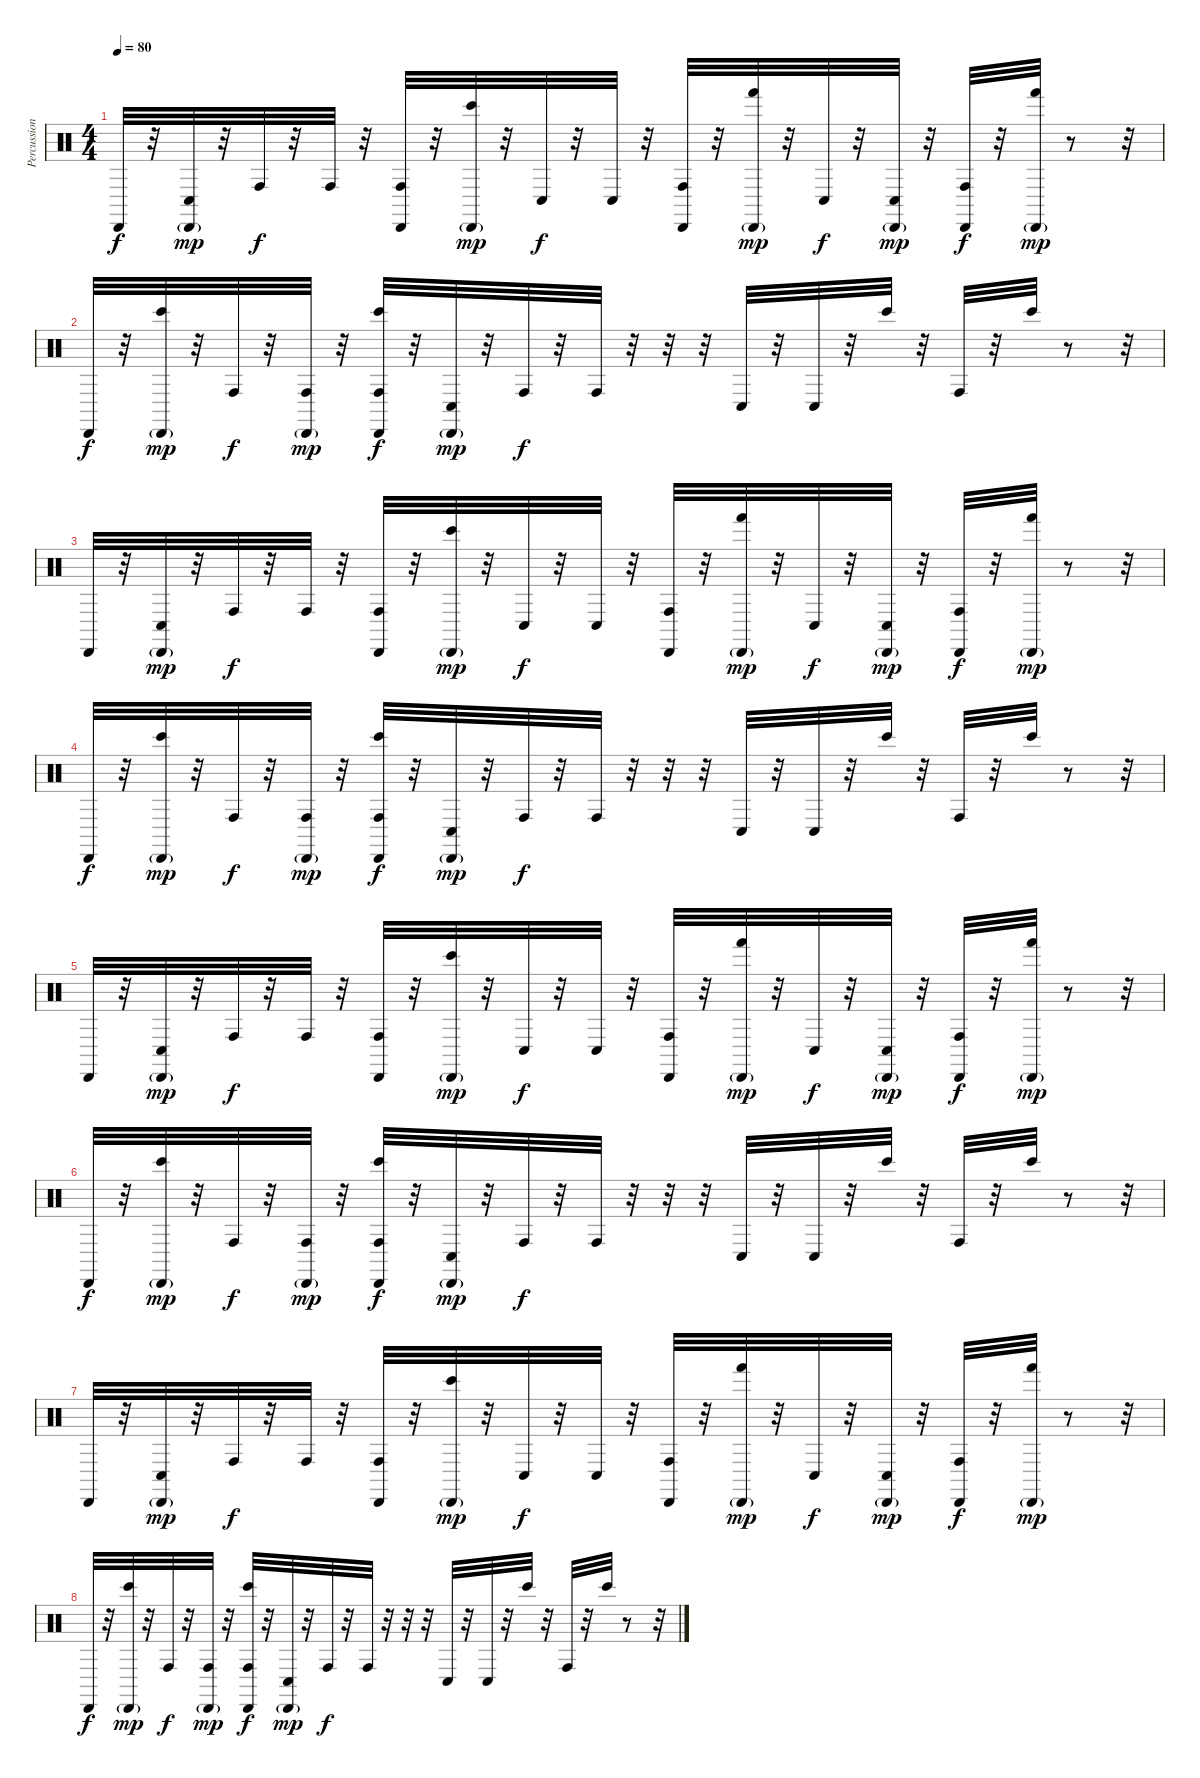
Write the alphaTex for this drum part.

\track ("Percussion" "Percussion") {instrument percussion}
\staff {score}
\articulation defaults
\ts (4 4)
\tempo 80
\clef neutral
\ks c "Cabasa (hit)".32{dy f}
r.32 ("Cabasa (hit)"{g} "Conga low (hit)").32{dy mp} r.32 "Conga high (hit)".32{dy f} r.32 "Conga high (hit)".32 r.32 ("Cabasa (hit)" "Conga high (hit)").32 r.32 ("Cabasa (hit)"{g} "Bongo High (hit)").32{dy mp} r.32 "Conga low (hit)".32{dy f} r.32 "Conga low (hit)".32 r.32 ("Cabasa (hit)" "Conga high (hit)").32 r.32 ("Cabasa (hit)"{g} "Hand (hit)").32{dy mp} r.32 "Conga low (hit)".32{dy f} r.32 ("Cabasa (hit)"{g} "Conga low (hit)").32{dy mp} r.32 ("Cabasa (hit)" "Conga high (hit)").32{dy f} r.32 ("Cabasa (hit)"{g} "Hand (hit)").32{dy mp} r.8 r.32 |
"Cabasa (hit)".32{dy f} r.32 ("Cabasa (hit)"{g} "Bongo High (hit)").32{dy mp} r.32 "Conga high (hit)".32{dy f} r.32 ("Cabasa (hit)"{g} "Conga high (hit)").32{dy mp} r.32 ("Cabasa (hit)" "Conga high (hit)" "Bongo High (hit)").32{dy f} r.32 ("Cabasa (hit)"{g} "Conga low (hit)").32{dy mp} r.32 "Conga high (hit)".32{dy f} r.32 "Conga high (hit)".32 r.32 r.32 r.32 "Conga low (hit)".32 r.32 "Conga low (hit)".32 r.32 "Bongo High (hit)".32 r.32 "Conga high (hit)".32 r.32 "Bongo High (hit)".32 r.8 r.32 |
"Cabasa (hit)".32 r.32 ("Cabasa (hit)"{g} "Conga low (hit)").32{dy mp} r.32 "Conga high (hit)".32{dy f} r.32 "Conga high (hit)".32 r.32 ("Cabasa (hit)" "Conga high (hit)").32 r.32 ("Cabasa (hit)"{g} "Bongo High (hit)").32{dy mp} r.32 "Conga low (hit)".32{dy f} r.32 "Conga low (hit)".32 r.32 ("Cabasa (hit)" "Conga high (hit)").32 r.32 ("Cabasa (hit)"{g} "Hand (hit)").32{dy mp} r.32 "Conga low (hit)".32{dy f} r.32 ("Cabasa (hit)"{g} "Conga low (hit)").32{dy mp} r.32 ("Cabasa (hit)" "Conga high (hit)").32{dy f} r.32 ("Cabasa (hit)"{g} "Hand (hit)").32{dy mp} r.8 r.32 |
"Cabasa (hit)".32{dy f} r.32 ("Cabasa (hit)"{g} "Bongo High (hit)").32{dy mp} r.32 "Conga high (hit)".32{dy f} r.32 ("Cabasa (hit)"{g} "Conga high (hit)").32{dy mp} r.32 ("Cabasa (hit)" "Conga high (hit)" "Bongo High (hit)").32{dy f} r.32 ("Cabasa (hit)"{g} "Conga low (hit)").32{dy mp} r.32 "Conga high (hit)".32{dy f} r.32 "Conga high (hit)".32 r.32 r.32 r.32 "Conga low (hit)".32 r.32 "Conga low (hit)".32 r.32 "Bongo High (hit)".32 r.32 "Conga high (hit)".32 r.32 "Bongo High (hit)".32 r.8 r.32 |
"Cabasa (hit)".32 r.32 ("Cabasa (hit)"{g} "Conga low (hit)").32{dy mp} r.32 "Conga high (hit)".32{dy f} r.32 "Conga high (hit)".32 r.32 ("Cabasa (hit)" "Conga high (hit)").32 r.32 ("Cabasa (hit)"{g} "Bongo High (hit)").32{dy mp} r.32 "Conga low (hit)".32{dy f} r.32 "Conga low (hit)".32 r.32 ("Cabasa (hit)" "Conga high (hit)").32 r.32 ("Cabasa (hit)"{g} "Hand (hit)").32{dy mp} r.32 "Conga low (hit)".32{dy f} r.32 ("Cabasa (hit)"{g} "Conga low (hit)").32{dy mp} r.32 ("Cabasa (hit)" "Conga high (hit)").32{dy f} r.32 ("Cabasa (hit)"{g} "Hand (hit)").32{dy mp} r.8 r.32 |
"Cabasa (hit)".32{dy f} r.32 ("Cabasa (hit)"{g} "Bongo High (hit)").32{dy mp} r.32 "Conga high (hit)".32{dy f} r.32 ("Cabasa (hit)"{g} "Conga high (hit)").32{dy mp} r.32 ("Cabasa (hit)" "Conga high (hit)" "Bongo High (hit)").32{dy f} r.32 ("Cabasa (hit)"{g} "Conga low (hit)").32{dy mp} r.32 "Conga high (hit)".32{dy f} r.32 "Conga high (hit)".32 r.32 r.32 r.32 "Conga low (hit)".32 r.32 "Conga low (hit)".32 r.32 "Bongo High (hit)".32 r.32 "Conga high (hit)".32 r.32 "Bongo High (hit)".32 r.8 r.32 |
"Cabasa (hit)".32 r.32 ("Cabasa (hit)"{g} "Conga low (hit)").32{dy mp} r.32 "Conga high (hit)".32{dy f} r.32 "Conga high (hit)".32 r.32 ("Cabasa (hit)" "Conga high (hit)").32 r.32 ("Cabasa (hit)"{g} "Bongo High (hit)").32{dy mp} r.32 "Conga low (hit)".32{dy f} r.32 "Conga low (hit)".32 r.32 ("Cabasa (hit)" "Conga high (hit)").32 r.32 ("Cabasa (hit)"{g} "Hand (hit)").32{dy mp} r.32 "Conga low (hit)".32{dy f} r.32 ("Cabasa (hit)"{g} "Conga low (hit)").32{dy mp} r.32 ("Cabasa (hit)" "Conga high (hit)").32{dy f} r.32 ("Cabasa (hit)"{g} "Hand (hit)").32{dy mp} r.8 r.32 |
"Cabasa (hit)".32{dy f} r.32 ("Cabasa (hit)"{g} "Bongo High (hit)").32{dy mp} r.32 "Conga high (hit)".32{dy f} r.32 ("Cabasa (hit)"{g} "Conga high (hit)").32{dy mp} r.32 ("Cabasa (hit)" "Conga high (hit)" "Bongo High (hit)").32{dy f} r.32 ("Cabasa (hit)"{g} "Conga low (hit)").32{dy mp} r.32 "Conga high (hit)".32{dy f} r.32 "Conga high (hit)".32 r.32 r.32 r.32 "Conga low (hit)".32 r.32 "Conga low (hit)".32 r.32 "Bongo High (hit)".32 r.32 "Conga high (hit)".32 r.32 "Bongo High (hit)".32 r.8 r.32
